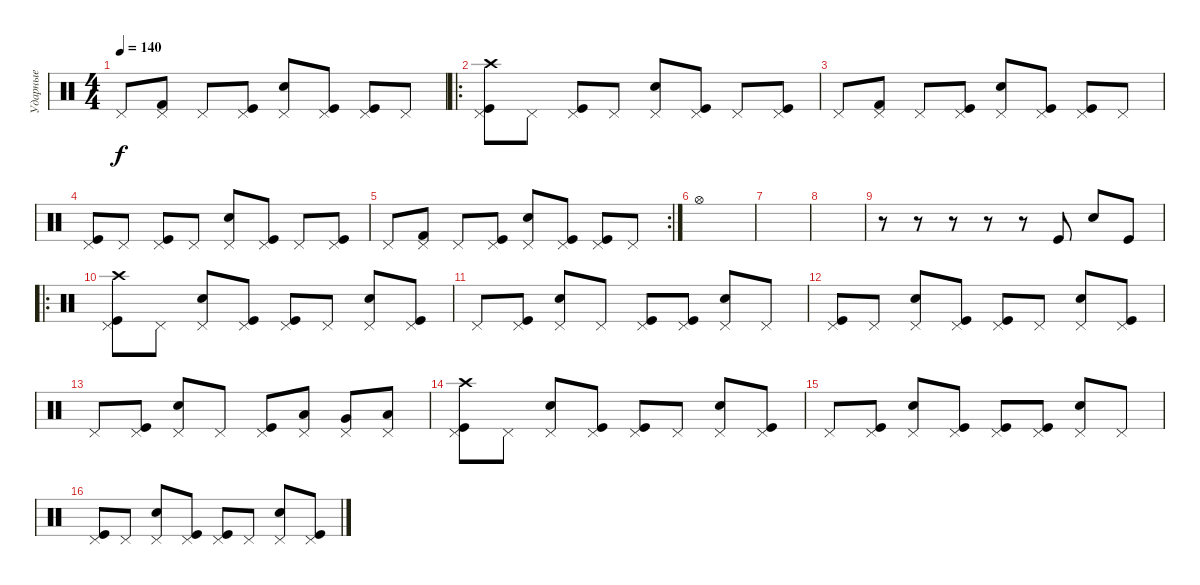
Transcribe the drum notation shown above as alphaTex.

\track ("Ударные" "Ударные") {instrument percussion}
\staff {score}
\articulation defaults
\ts (4 4)
\tempo 140
\clef neutral
\ks c "Pedal Hi-Hat (hit)".8{dy f}
("Pedal Hi-Hat (hit)" "Kick (hit) 2").8 "Pedal Hi-Hat (hit)".8 ("Pedal Hi-Hat (hit)" "Kick (hit)").8 ("Snare (hit) 2" "Pedal Hi-Hat (hit)").8 ("Kick (hit)" "Pedal Hi-Hat (hit)").8 ("Kick (hit)" "Pedal Hi-Hat (hit)").8 "Pedal Hi-Hat (hit)".8 |
\ro
("Pedal Hi-Hat (hit)" "Kick (hit)" "Crash high (hit)").8 "Pedal Hi-Hat (hit)".8 ("Pedal Hi-Hat (hit)" "Kick (hit)").8 "Pedal Hi-Hat (hit)".8 ("Pedal Hi-Hat (hit)" "Snare (hit) 2").8 ("Pedal Hi-Hat (hit)" "Kick (hit)").8 "Pedal Hi-Hat (hit)".8 ("Pedal Hi-Hat (hit)" "Kick (hit)").8 |
"Pedal Hi-Hat (hit)".8 ("Pedal Hi-Hat (hit)" "Kick (hit) 2").8 "Pedal Hi-Hat (hit)".8 ("Pedal Hi-Hat (hit)" "Kick (hit)").8 ("Snare (hit) 2" "Pedal Hi-Hat (hit)").8 ("Kick (hit)" "Pedal Hi-Hat (hit)").8 ("Kick (hit)" "Pedal Hi-Hat (hit)").8 "Pedal Hi-Hat (hit)".8 |
("Pedal Hi-Hat (hit)" "Kick (hit)").8 "Pedal Hi-Hat (hit)".8 ("Pedal Hi-Hat (hit)" "Kick (hit)").8 "Pedal Hi-Hat (hit)".8 ("Pedal Hi-Hat (hit)" "Snare (hit) 2").8 ("Pedal Hi-Hat (hit)" "Kick (hit)").8 "Pedal Hi-Hat (hit)".8 ("Pedal Hi-Hat (hit)" "Kick (hit)").8 |
\rc 2 "Pedal Hi-Hat (hit)".8
("Pedal Hi-Hat (hit)" "Kick (hit) 2").8 "Pedal Hi-Hat (hit)".8 ("Pedal Hi-Hat (hit)" "Kick (hit)").8 ("Snare (hit) 2" "Pedal Hi-Hat (hit)").8 ("Kick (hit)" "Pedal Hi-Hat (hit)").8 ("Kick (hit)" "Pedal Hi-Hat (hit)").8 "Pedal Hi-Hat (hit)".8 |
"Hi-Hat (open)".1 |
|
|
r.8 r.8 r.8 r.8 r.8 "Kick (hit)".8 "Snare (hit) 2".8 "Kick (hit)".8 |
\ro
("Pedal Hi-Hat (hit)" "Kick (hit)" "Crash high (hit)").8 "Pedal Hi-Hat (hit)".8 ("Pedal Hi-Hat (hit)" "Snare (hit) 2").8 ("Pedal Hi-Hat (hit)" "Kick (hit)").8 ("Pedal Hi-Hat (hit)" "Kick (hit)").8 "Pedal Hi-Hat (hit)".8 ("Pedal Hi-Hat (hit)" "Snare (hit) 2").8 ("Pedal Hi-Hat (hit)" "Kick (hit)").8 |
"Pedal Hi-Hat (hit)".8 ("Pedal Hi-Hat (hit)" "Kick (hit)").8 ("Pedal Hi-Hat (hit)" "Snare (hit) 2").8 "Pedal Hi-Hat (hit)".8 ("Pedal Hi-Hat (hit)" "Kick (hit)").8 ("Pedal Hi-Hat (hit)" "Kick (hit)").8 ("Pedal Hi-Hat (hit)" "Snare (hit) 2").8 "Pedal Hi-Hat (hit)".8 |
("Pedal Hi-Hat (hit)" "Kick (hit)").8 "Pedal Hi-Hat (hit)".8 ("Pedal Hi-Hat (hit)" "Snare (hit) 2").8 ("Pedal Hi-Hat (hit)" "Kick (hit)").8 ("Pedal Hi-Hat (hit)" "Kick (hit)").8 "Pedal Hi-Hat (hit)".8 ("Pedal Hi-Hat (hit)" "Snare (hit) 2").8 ("Pedal Hi-Hat (hit)" "Kick (hit)").8 |
"Pedal Hi-Hat (hit)".8 ("Pedal Hi-Hat (hit)" "Kick (hit)").8 ("Pedal Hi-Hat (hit)" "Snare (hit) 2").8 "Pedal Hi-Hat (hit)".8 ("Pedal Hi-Hat (hit)" "Kick (hit)").8 ("Pedal Hi-Hat (hit)" "Low Tom (hit)").8 ("Pedal Hi-Hat (hit)" "Very Low Tom (hit)").8 ("Pedal Hi-Hat (hit)" "Low Floor Tom (hit)").8 |
("Pedal Hi-Hat (hit)" "Kick (hit)" "Crash high (hit)").8 "Pedal Hi-Hat (hit)".8 ("Pedal Hi-Hat (hit)" "Snare (hit) 2").8 ("Pedal Hi-Hat (hit)" "Kick (hit)").8 ("Pedal Hi-Hat (hit)" "Kick (hit)").8 "Pedal Hi-Hat (hit)".8 ("Pedal Hi-Hat (hit)" "Snare (hit) 2").8 ("Pedal Hi-Hat (hit)" "Kick (hit)").8 |
"Pedal Hi-Hat (hit)".8 ("Pedal Hi-Hat (hit)" "Kick (hit)").8 ("Pedal Hi-Hat (hit)" "Snare (hit) 2").8 ("Pedal Hi-Hat (hit)" "Kick (hit)").8 ("Pedal Hi-Hat (hit)" "Kick (hit)").8 ("Pedal Hi-Hat (hit)" "Kick (hit)").8 ("Pedal Hi-Hat (hit)" "Snare (hit) 2").8 "Pedal Hi-Hat (hit)".8 |
("Pedal Hi-Hat (hit)" "Kick (hit)").8 "Pedal Hi-Hat (hit)".8 ("Pedal Hi-Hat (hit)" "Snare (hit) 2").8 ("Pedal Hi-Hat (hit)" "Kick (hit)").8 ("Pedal Hi-Hat (hit)" "Kick (hit)").8 "Pedal Hi-Hat (hit)".8 ("Pedal Hi-Hat (hit)" "Snare (hit) 2").8 ("Pedal Hi-Hat (hit)" "Kick (hit)").8
